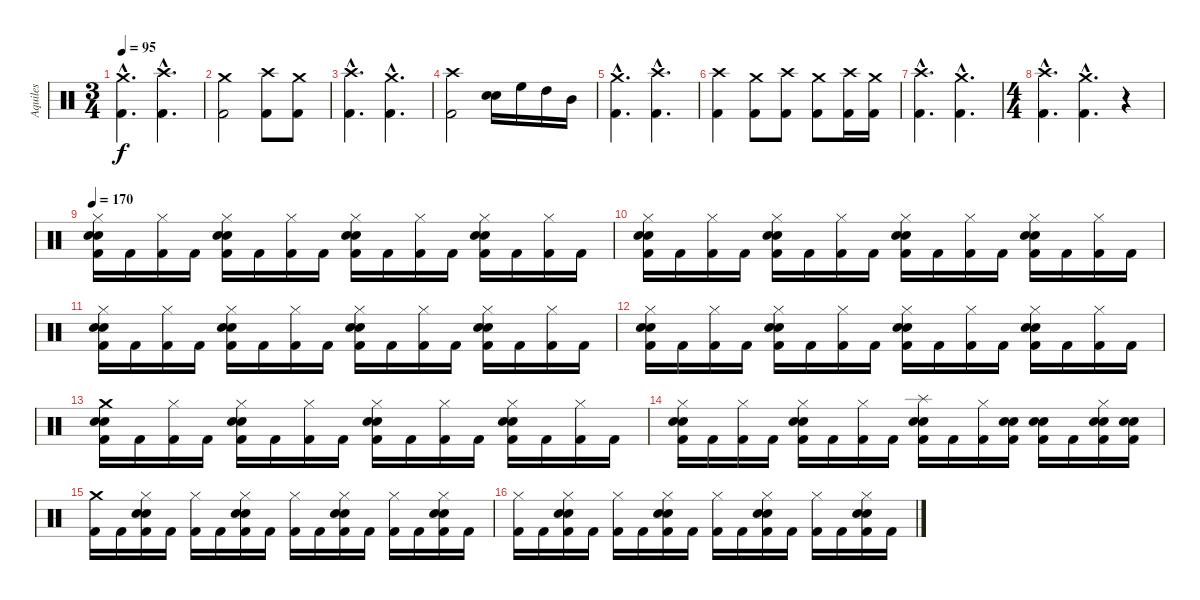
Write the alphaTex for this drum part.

\track ("Aquiles" "Aquiles") {instrument percussion}
\staff {score}
\articulation defaults
\ts (3 4)
\tempo 95
\clef neutral
\ks c
("Crash medium (hit)"{hac} "Kick (hit) 2"{hac}).4{d dy f} ("Crash high (hit)"{hac} "Kick (hit) 2"{hac}).4{d} |
("Crash medium (hit)" "Kick (hit) 2").2 ("Crash high (hit)" "Kick (hit) 2").8 ("Crash medium (hit)" "Kick (hit) 2").8 |
("Crash high (hit)"{hac} "Kick (hit) 2"{hac}).4{d} ("Crash medium (hit)"{hac} "Kick (hit) 2"{hac}).4{d} |
("Crash high (hit)" "Kick (hit) 2").2 ("Electric Snare (hit)" "Snare (hit) 2").16 "High Floor Tom (hit)".16 "High Tom (hit)".16 "Mid Tom (hit)".16 |
("Crash medium (hit)"{hac} "Kick (hit) 2"{hac}).4{d} ("Crash high (hit)"{hac} "Kick (hit) 2"{hac}).4{d} |
("Crash high (hit)" "Kick (hit) 2").4 ("Crash medium (hit)" "Kick (hit) 2").8 ("Crash high (hit)" "Kick (hit) 2").8 ("Crash medium (hit)" "Kick (hit) 2").8 ("Crash high (hit)" "Kick (hit) 2").16 ("Crash medium (hit)" "Kick (hit) 2").16 |
("Crash high (hit)"{hac} "Kick (hit) 2"{hac}).4{d} ("Crash medium (hit)"{hac} "Kick (hit) 2"{hac}).4{d} |
\ts (4 4)
("Crash high (hit)"{hac} "Kick (hit) 2"{hac}).4{d} ("Crash medium (hit)"{hac} "Kick (hit) 2"{hac}).4{d} r.4 |
\tempo 170
("Hi-Hat (closed)" "Electric Snare (hit)" "Snare (hit) 2" "Kick (hit) 2").16 "Kick (hit) 2".16 ("Hi-Hat (closed)" "Kick (hit) 2").16 "Kick (hit) 2".16 ("Hi-Hat (closed)" "Electric Snare (hit)" "Snare (hit) 2" "Kick (hit) 2").16 "Kick (hit) 2".16 ("Hi-Hat (closed)" "Kick (hit) 2").16 "Kick (hit) 2".16 ("Hi-Hat (closed)" "Electric Snare (hit)" "Snare (hit) 2" "Kick (hit) 2").16 "Kick (hit) 2".16 ("Hi-Hat (closed)" "Kick (hit) 2").16 "Kick (hit) 2".16 ("Hi-Hat (closed)" "Electric Snare (hit)" "Snare (hit) 2" "Kick (hit) 2").16 "Kick (hit) 2".16 ("Hi-Hat (closed)" "Kick (hit) 2").16 "Kick (hit) 2".16 |
("Hi-Hat (closed)" "Electric Snare (hit)" "Snare (hit) 2" "Kick (hit) 2").16 "Kick (hit) 2".16 ("Hi-Hat (closed)" "Kick (hit) 2").16 "Kick (hit) 2".16 ("Hi-Hat (closed)" "Electric Snare (hit)" "Snare (hit) 2" "Kick (hit) 2").16 "Kick (hit) 2".16 ("Hi-Hat (closed)" "Kick (hit) 2").16 "Kick (hit) 2".16 ("Hi-Hat (closed)" "Electric Snare (hit)" "Snare (hit) 2" "Kick (hit) 2").16 "Kick (hit) 2".16 ("Hi-Hat (closed)" "Kick (hit) 2").16 "Kick (hit) 2".16 ("Hi-Hat (closed)" "Electric Snare (hit)" "Snare (hit) 2" "Kick (hit) 2").16 "Kick (hit) 2".16 ("Hi-Hat (closed)" "Kick (hit) 2").16 "Kick (hit) 2".16 |
("Hi-Hat (closed)" "Electric Snare (hit)" "Snare (hit) 2" "Kick (hit) 2").16 "Kick (hit) 2".16 ("Hi-Hat (closed)" "Kick (hit) 2").16 "Kick (hit) 2".16 ("Hi-Hat (closed)" "Electric Snare (hit)" "Snare (hit) 2" "Kick (hit) 2").16 "Kick (hit) 2".16 ("Hi-Hat (closed)" "Kick (hit) 2").16 "Kick (hit) 2".16 ("Hi-Hat (closed)" "Electric Snare (hit)" "Snare (hit) 2" "Kick (hit) 2").16 "Kick (hit) 2".16 ("Hi-Hat (closed)" "Kick (hit) 2").16 "Kick (hit) 2".16 ("Hi-Hat (closed)" "Electric Snare (hit)" "Snare (hit) 2" "Kick (hit) 2").16 "Kick (hit) 2".16 ("Hi-Hat (closed)" "Kick (hit) 2").16 "Kick (hit) 2".16 |
("Hi-Hat (closed)" "Electric Snare (hit)" "Snare (hit) 2" "Kick (hit) 2").16 "Kick (hit) 2".16 ("Hi-Hat (closed)" "Kick (hit) 2").16 "Kick (hit) 2".16 ("Hi-Hat (closed)" "Electric Snare (hit)" "Snare (hit) 2" "Kick (hit) 2").16 "Kick (hit) 2".16 ("Hi-Hat (closed)" "Kick (hit) 2").16 "Kick (hit) 2".16 ("Hi-Hat (closed)" "Electric Snare (hit)" "Snare (hit) 2" "Kick (hit) 2").16 "Kick (hit) 2".16 ("Hi-Hat (closed)" "Kick (hit) 2").16 "Kick (hit) 2".16 ("Hi-Hat (closed)" "Electric Snare (hit)" "Snare (hit) 2" "Kick (hit) 2").16 "Kick (hit) 2".16 ("Hi-Hat (closed)" "Kick (hit) 2").16 "Kick (hit) 2".16 |
("Crash medium (hit)" "Electric Snare (hit)" "Snare (hit) 2" "Kick (hit) 2").16 "Kick (hit) 2".16 ("Hi-Hat (closed)" "Kick (hit) 2").16 "Kick (hit) 2".16 ("Hi-Hat (closed)" "Electric Snare (hit)" "Snare (hit) 2" "Kick (hit) 2").16 "Kick (hit) 2".16 ("Hi-Hat (closed)" "Kick (hit) 2").16 "Kick (hit) 2".16 ("Hi-Hat (closed)" "Electric Snare (hit)" "Snare (hit) 2" "Kick (hit) 2").16 "Kick (hit) 2".16 ("Hi-Hat (closed)" "Kick (hit) 2").16 "Kick (hit) 2".16 ("Hi-Hat (closed)" "Electric Snare (hit)" "Snare (hit) 2" "Kick (hit) 2").16 "Kick (hit) 2".16 ("Hi-Hat (closed)" "Kick (hit) 2").16 "Kick (hit) 2".16 |
("Hi-Hat (closed)" "Electric Snare (hit)" "Snare (hit) 2" "Kick (hit) 2").16 "Kick (hit) 2".16 ("Hi-Hat (closed)" "Kick (hit) 2").16 "Kick (hit) 2".16 ("Hi-Hat (closed)" "Electric Snare (hit)" "Snare (hit) 2" "Kick (hit) 2").16 "Kick (hit) 2".16 ("Hi-Hat (closed)" "Kick (hit) 2").16 "Kick (hit) 2".16 ("Splash (hit)" "Electric Snare (hit)" "Snare (hit) 2" "Kick (hit) 2").16 "Kick (hit) 2".16 ("Hi-Hat (closed)" "Kick (hit) 2").16 ("Electric Snare (hit)" "Snare (hit) 2" "Kick (hit) 2").16 ("Electric Snare (hit)" "Snare (hit) 2" "Kick (hit) 2").16 "Kick (hit) 2".16 ("Hi-Hat (closed)" "Electric Snare (hit)" "Snare (hit) 2" "Kick (hit) 2").16 ("Electric Snare (hit)" "Snare (hit) 2" "Kick (hit) 2").16 |
("Crash medium (hit)" "Kick (hit) 2").16 "Kick (hit) 2".16 ("Hi-Hat (closed)" "Electric Snare (hit)" "Snare (hit) 2" "Kick (hit) 2").16 "Kick (hit) 2".16 ("Hi-Hat (closed)" "Kick (hit) 2").16 "Kick (hit) 2".16 ("Hi-Hat (closed)" "Electric Snare (hit)" "Snare (hit) 2" "Kick (hit) 2").16 "Kick (hit) 2".16 ("Hi-Hat (closed)" "Kick (hit) 2").16 "Kick (hit) 2".16 ("Hi-Hat (closed)" "Electric Snare (hit)" "Snare (hit) 2" "Kick (hit) 2").16 "Kick (hit) 2".16 ("Hi-Hat (closed)" "Kick (hit) 2").16 "Kick (hit) 2".16 ("Hi-Hat (closed)" "Electric Snare (hit)" "Snare (hit) 2" "Kick (hit) 2").16 "Kick (hit) 2".16 |
("Hi-Hat (closed)" "Kick (hit) 2").16 "Kick (hit) 2".16 ("Hi-Hat (closed)" "Electric Snare (hit)" "Snare (hit) 2" "Kick (hit) 2").16 "Kick (hit) 2".16 ("Hi-Hat (closed)" "Kick (hit) 2").16 "Kick (hit) 2".16 ("Hi-Hat (closed)" "Electric Snare (hit)" "Snare (hit) 2" "Kick (hit) 2").16 "Kick (hit) 2".16 ("Hi-Hat (closed)" "Kick (hit) 2").16 "Kick (hit) 2".16 ("Hi-Hat (closed)" "Electric Snare (hit)" "Snare (hit) 2" "Kick (hit) 2").16 "Kick (hit) 2".16 ("Hi-Hat (closed)" "Kick (hit) 2").16 "Kick (hit) 2".16 ("Hi-Hat (closed)" "Electric Snare (hit)" "Snare (hit) 2" "Kick (hit) 2").16 "Kick (hit) 2".16
